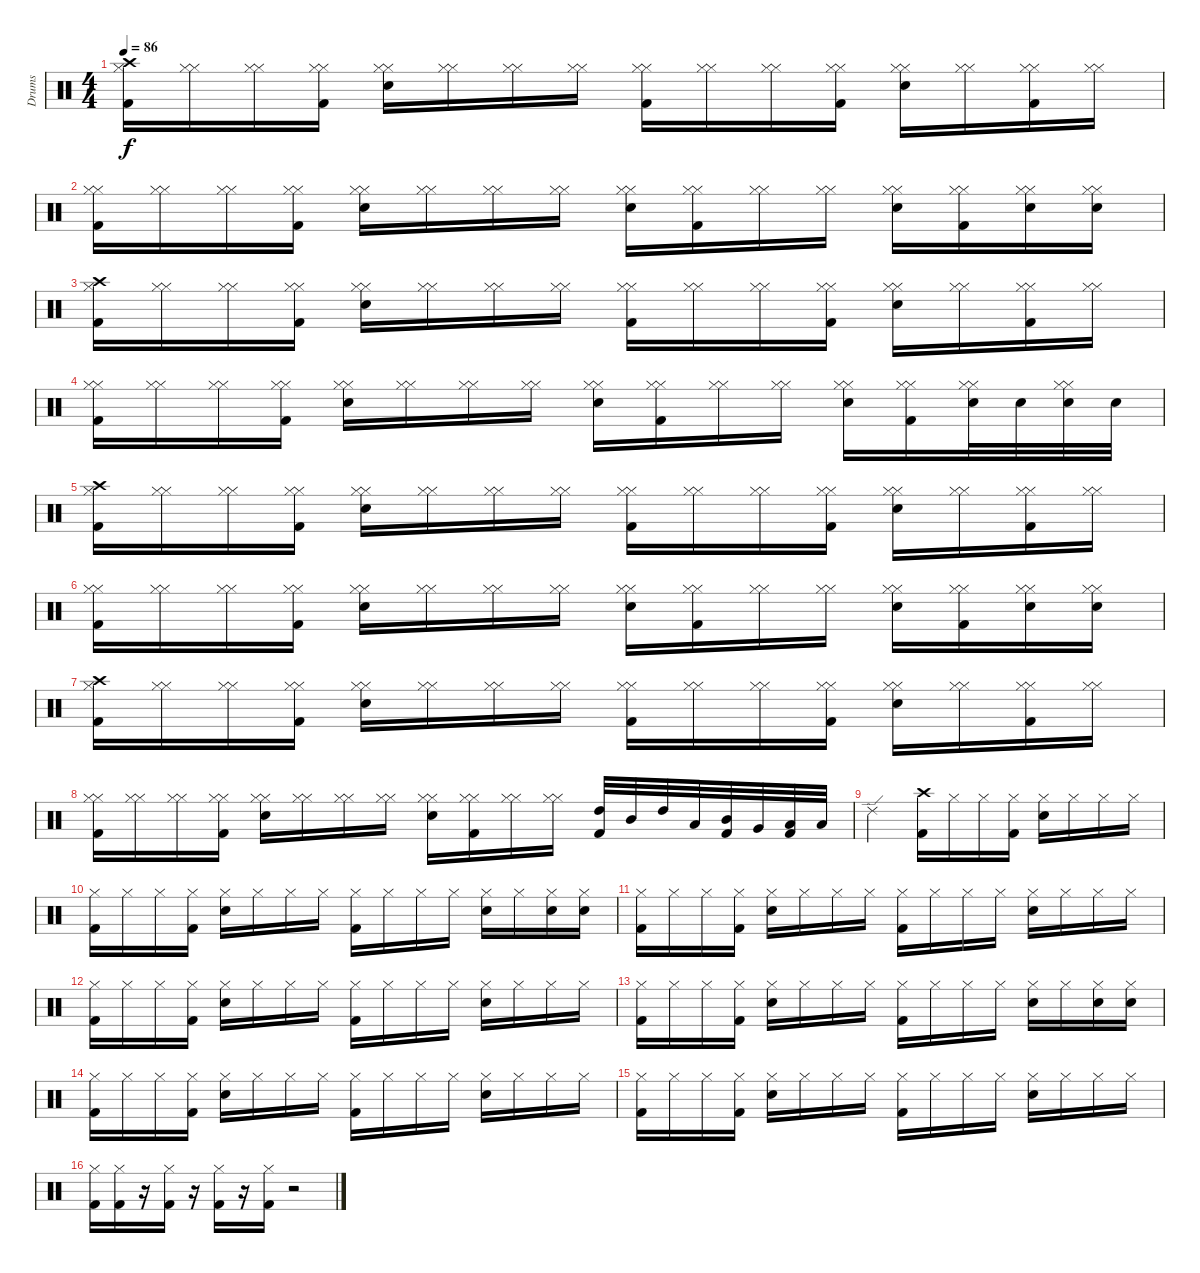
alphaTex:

\track ("Drums" "Drums") {instrument percussion}
\staff {score}
\articulation defaults
\ts (4 4)
\tempo 86
\clef neutral
\ks c
("Crash high (hit)" "Hi-Hat (closed)" "Kick (hit) 2").16{dy f} ("Hi-Hat (closed)" "Hi-Hat (closed)").16 ("Hi-Hat (closed)" "Hi-Hat (closed)").16 ("Hi-Hat (closed)" "Hi-Hat (closed)" "Kick (hit) 2").16 ("Hi-Hat (closed)" "Hi-Hat (closed)" "Electric Snare (hit)").16 ("Hi-Hat (closed)" "Hi-Hat (closed)").16 ("Hi-Hat (closed)" "Hi-Hat (closed)").16 ("Hi-Hat (closed)" "Hi-Hat (closed)").16 ("Hi-Hat (closed)" "Hi-Hat (closed)" "Kick (hit) 2").16 ("Hi-Hat (closed)" "Hi-Hat (closed)").16 ("Hi-Hat (closed)" "Hi-Hat (closed)").16 ("Hi-Hat (closed)" "Hi-Hat (closed)" "Kick (hit) 2").16 ("Hi-Hat (closed)" "Hi-Hat (closed)" "Electric Snare (hit)").16 ("Hi-Hat (closed)" "Hi-Hat (closed)").16 ("Hi-Hat (closed)" "Hi-Hat (closed)" "Kick (hit) 2").16 ("Hi-Hat (closed)" "Hi-Hat (closed)").16 |
("Hi-Hat (closed)" "Hi-Hat (closed)" "Kick (hit) 2").16 ("Hi-Hat (closed)" "Hi-Hat (closed)").16 ("Hi-Hat (closed)" "Hi-Hat (closed)").16 ("Hi-Hat (closed)" "Hi-Hat (closed)" "Kick (hit) 2").16 ("Hi-Hat (closed)" "Hi-Hat (closed)" "Electric Snare (hit)").16 ("Hi-Hat (closed)" "Hi-Hat (closed)").16 ("Hi-Hat (closed)" "Hi-Hat (closed)").16 ("Hi-Hat (closed)" "Hi-Hat (closed)").16 ("Hi-Hat (closed)" "Hi-Hat (closed)" "Electric Snare (hit)").16 ("Hi-Hat (closed)" "Hi-Hat (closed)" "Kick (hit) 2").16 ("Hi-Hat (closed)" "Hi-Hat (closed)").16 ("Hi-Hat (closed)" "Hi-Hat (closed)").16 ("Hi-Hat (closed)" "Hi-Hat (closed)" "Electric Snare (hit)").16 ("Hi-Hat (closed)" "Hi-Hat (closed)" "Kick (hit) 2").16 ("Hi-Hat (closed)" "Hi-Hat (closed)" "Electric Snare (hit)").16 ("Hi-Hat (closed)" "Hi-Hat (closed)" "Electric Snare (hit)").16 |
("Crash high (hit)" "Hi-Hat (closed)" "Kick (hit) 2").16 ("Hi-Hat (closed)" "Hi-Hat (closed)").16 ("Hi-Hat (closed)" "Hi-Hat (closed)").16 ("Hi-Hat (closed)" "Hi-Hat (closed)" "Kick (hit) 2").16 ("Hi-Hat (closed)" "Hi-Hat (closed)" "Electric Snare (hit)").16 ("Hi-Hat (closed)" "Hi-Hat (closed)").16 ("Hi-Hat (closed)" "Hi-Hat (closed)").16 ("Hi-Hat (closed)" "Hi-Hat (closed)").16 ("Hi-Hat (closed)" "Hi-Hat (closed)" "Kick (hit) 2").16 ("Hi-Hat (closed)" "Hi-Hat (closed)").16 ("Hi-Hat (closed)" "Hi-Hat (closed)").16 ("Hi-Hat (closed)" "Hi-Hat (closed)" "Kick (hit) 2").16 ("Hi-Hat (closed)" "Hi-Hat (closed)" "Electric Snare (hit)").16 ("Hi-Hat (closed)" "Hi-Hat (closed)").16 ("Hi-Hat (closed)" "Hi-Hat (closed)" "Kick (hit) 2").16 ("Hi-Hat (closed)" "Hi-Hat (closed)").16 |
("Hi-Hat (closed)" "Hi-Hat (closed)" "Kick (hit) 2").16 ("Hi-Hat (closed)" "Hi-Hat (closed)").16 ("Hi-Hat (closed)" "Hi-Hat (closed)").16 ("Hi-Hat (closed)" "Hi-Hat (closed)" "Kick (hit) 2").16 ("Hi-Hat (closed)" "Hi-Hat (closed)" "Electric Snare (hit)").16 ("Hi-Hat (closed)" "Hi-Hat (closed)").16 ("Hi-Hat (closed)" "Hi-Hat (closed)").16 ("Hi-Hat (closed)" "Hi-Hat (closed)").16 ("Hi-Hat (closed)" "Hi-Hat (closed)" "Electric Snare (hit)").16 ("Hi-Hat (closed)" "Hi-Hat (closed)" "Kick (hit) 2").16 ("Hi-Hat (closed)" "Hi-Hat (closed)").16 ("Hi-Hat (closed)" "Hi-Hat (closed)").16 ("Hi-Hat (closed)" "Hi-Hat (closed)" "Electric Snare (hit)").16 ("Hi-Hat (closed)" "Hi-Hat (closed)" "Kick (hit) 2").16 ("Hi-Hat (closed)" "Hi-Hat (closed)" "Electric Snare (hit)").32 "Electric Snare (hit)".32 ("Hi-Hat (closed)" "Hi-Hat (closed)" "Electric Snare (hit)").32 "Electric Snare (hit)".32 |
("Crash high (hit)" "Hi-Hat (closed)" "Kick (hit) 2").16 ("Hi-Hat (closed)" "Hi-Hat (closed)").16 ("Hi-Hat (closed)" "Hi-Hat (closed)").16 ("Hi-Hat (closed)" "Hi-Hat (closed)" "Kick (hit) 2").16 ("Hi-Hat (closed)" "Hi-Hat (closed)" "Electric Snare (hit)").16 ("Hi-Hat (closed)" "Hi-Hat (closed)").16 ("Hi-Hat (closed)" "Hi-Hat (closed)").16 ("Hi-Hat (closed)" "Hi-Hat (closed)").16 ("Hi-Hat (closed)" "Hi-Hat (closed)" "Kick (hit) 2").16 ("Hi-Hat (closed)" "Hi-Hat (closed)").16 ("Hi-Hat (closed)" "Hi-Hat (closed)").16 ("Hi-Hat (closed)" "Hi-Hat (closed)" "Kick (hit) 2").16 ("Hi-Hat (closed)" "Hi-Hat (closed)" "Electric Snare (hit)").16 ("Hi-Hat (closed)" "Hi-Hat (closed)").16 ("Hi-Hat (closed)" "Hi-Hat (closed)" "Kick (hit) 2").16 ("Hi-Hat (closed)" "Hi-Hat (closed)").16 |
("Hi-Hat (closed)" "Hi-Hat (closed)" "Kick (hit) 2").16 ("Hi-Hat (closed)" "Hi-Hat (closed)").16 ("Hi-Hat (closed)" "Hi-Hat (closed)").16 ("Hi-Hat (closed)" "Hi-Hat (closed)" "Kick (hit) 2").16 ("Hi-Hat (closed)" "Hi-Hat (closed)" "Electric Snare (hit)").16 ("Hi-Hat (closed)" "Hi-Hat (closed)").16 ("Hi-Hat (closed)" "Hi-Hat (closed)").16 ("Hi-Hat (closed)" "Hi-Hat (closed)").16 ("Hi-Hat (closed)" "Hi-Hat (closed)" "Electric Snare (hit)").16 ("Hi-Hat (closed)" "Hi-Hat (closed)" "Kick (hit) 2").16 ("Hi-Hat (closed)" "Hi-Hat (closed)").16 ("Hi-Hat (closed)" "Hi-Hat (closed)").16 ("Hi-Hat (closed)" "Hi-Hat (closed)" "Electric Snare (hit)").16 ("Hi-Hat (closed)" "Hi-Hat (closed)" "Kick (hit) 2").16 ("Hi-Hat (closed)" "Hi-Hat (closed)" "Electric Snare (hit)").16 ("Hi-Hat (closed)" "Hi-Hat (closed)" "Electric Snare (hit)").16 |
("Crash high (hit)" "Hi-Hat (closed)" "Kick (hit) 2").16 ("Hi-Hat (closed)" "Hi-Hat (closed)").16 ("Hi-Hat (closed)" "Hi-Hat (closed)").16 ("Hi-Hat (closed)" "Hi-Hat (closed)" "Kick (hit) 2").16 ("Hi-Hat (closed)" "Hi-Hat (closed)" "Electric Snare (hit)").16 ("Hi-Hat (closed)" "Hi-Hat (closed)").16 ("Hi-Hat (closed)" "Hi-Hat (closed)").16 ("Hi-Hat (closed)" "Hi-Hat (closed)").16 ("Hi-Hat (closed)" "Hi-Hat (closed)" "Kick (hit) 2").16 ("Hi-Hat (closed)" "Hi-Hat (closed)").16 ("Hi-Hat (closed)" "Hi-Hat (closed)").16 ("Hi-Hat (closed)" "Hi-Hat (closed)" "Kick (hit) 2").16 ("Hi-Hat (closed)" "Hi-Hat (closed)" "Electric Snare (hit)").16 ("Hi-Hat (closed)" "Hi-Hat (closed)").16 ("Hi-Hat (closed)" "Hi-Hat (closed)" "Kick (hit) 2").16 ("Hi-Hat (closed)" "Hi-Hat (closed)").16 |
("Hi-Hat (closed)" "Hi-Hat (closed)" "Kick (hit) 2").16 ("Hi-Hat (closed)" "Hi-Hat (closed)").16 ("Hi-Hat (closed)" "Hi-Hat (closed)").16 ("Hi-Hat (closed)" "Hi-Hat (closed)" "Kick (hit) 2").16 ("Hi-Hat (closed)" "Hi-Hat (closed)" "Electric Snare (hit)").16 ("Hi-Hat (closed)" "Hi-Hat (closed)").16 ("Hi-Hat (closed)" "Hi-Hat (closed)").16 ("Hi-Hat (closed)" "Hi-Hat (closed)").16 ("Hi-Hat (closed)" "Hi-Hat (closed)" "Electric Snare (hit)").16 ("Hi-Hat (closed)" "Hi-Hat (closed)" "Kick (hit) 2").16 ("Hi-Hat (closed)" "Hi-Hat (closed)").16 ("Hi-Hat (closed)" "Hi-Hat (closed)").16 ("High Tom (hit)" "Kick (hit) 2").32 "Mid Tom (hit)".32 "High Tom (hit)".32 "Low Tom (hit)".32 ("Mid Tom (hit)" "Kick (hit) 2").32 "Very Low Tom (hit)".32 ("Low Tom (hit)" "Kick (hit) 2").32 "Low Floor Tom (hit)".32 |
"Ride (edge) 2".2 ("Crash high (hit)" "Kick (hit) 2").16 "Hi-Hat (closed)".16 "Hi-Hat (closed)".16 ("Hi-Hat (closed)" "Kick (hit) 2").16 ("Hi-Hat (closed)" "Electric Snare (hit)").16 "Hi-Hat (closed)".16 "Hi-Hat (closed)".16 "Hi-Hat (closed)".16 |
("Hi-Hat (closed)" "Kick (hit) 2").16 "Hi-Hat (closed)".16 "Hi-Hat (closed)".16 ("Hi-Hat (closed)" "Kick (hit) 2").16 ("Hi-Hat (closed)" "Electric Snare (hit)").16 "Hi-Hat (closed)".16 "Hi-Hat (closed)".16 "Hi-Hat (closed)".16 ("Hi-Hat (closed)" "Kick (hit) 2").16 "Hi-Hat (closed)".16 "Hi-Hat (closed)".16 "Hi-Hat (closed)".16 ("Hi-Hat (closed)" "Electric Snare (hit)").16 "Hi-Hat (closed)".16 ("Hi-Hat (closed)" "Electric Snare (hit)").16 ("Hi-Hat (closed)" "Electric Snare (hit)").16 |
("Hi-Hat (closed)" "Kick (hit) 2").16 "Hi-Hat (closed)".16 "Hi-Hat (closed)".16 ("Hi-Hat (closed)" "Kick (hit) 2").16 ("Hi-Hat (closed)" "Electric Snare (hit)").16 "Hi-Hat (closed)".16 "Hi-Hat (closed)".16 "Hi-Hat (closed)".16 ("Hi-Hat (closed)" "Kick (hit) 2").16 "Hi-Hat (closed)".16 "Hi-Hat (closed)".16 "Hi-Hat (closed)".16 ("Hi-Hat (closed)" "Electric Snare (hit)").16 "Hi-Hat (closed)".16 "Hi-Hat (closed)".16 "Hi-Hat (closed)".16 |
("Hi-Hat (closed)" "Kick (hit) 2").16 "Hi-Hat (closed)".16 "Hi-Hat (closed)".16 ("Hi-Hat (closed)" "Kick (hit) 2").16 ("Hi-Hat (closed)" "Electric Snare (hit)").16 "Hi-Hat (closed)".16 "Hi-Hat (closed)".16 "Hi-Hat (closed)".16 ("Hi-Hat (closed)" "Kick (hit) 2").16 "Hi-Hat (closed)".16 "Hi-Hat (closed)".16 "Hi-Hat (closed)".16 ("Hi-Hat (closed)" "Electric Snare (hit)").16 "Hi-Hat (closed)".16 "Hi-Hat (closed)".16 "Hi-Hat (closed)".16 |
("Hi-Hat (closed)" "Kick (hit) 2").16 "Hi-Hat (closed)".16 "Hi-Hat (closed)".16 ("Hi-Hat (closed)" "Kick (hit) 2").16 ("Hi-Hat (closed)" "Electric Snare (hit)").16 "Hi-Hat (closed)".16 "Hi-Hat (closed)".16 "Hi-Hat (closed)".16 ("Hi-Hat (closed)" "Kick (hit) 2").16 "Hi-Hat (closed)".16 "Hi-Hat (closed)".16 "Hi-Hat (closed)".16 ("Hi-Hat (closed)" "Electric Snare (hit)").16 "Hi-Hat (closed)".16 ("Hi-Hat (closed)" "Electric Snare (hit)").16 ("Hi-Hat (closed)" "Electric Snare (hit)").16 |
("Hi-Hat (closed)" "Kick (hit) 2").16 "Hi-Hat (closed)".16 "Hi-Hat (closed)".16 ("Hi-Hat (closed)" "Kick (hit) 2").16 ("Hi-Hat (closed)" "Electric Snare (hit)").16 "Hi-Hat (closed)".16 "Hi-Hat (closed)".16 "Hi-Hat (closed)".16 ("Hi-Hat (closed)" "Kick (hit) 2").16 "Hi-Hat (closed)".16 "Hi-Hat (closed)".16 "Hi-Hat (closed)".16 ("Hi-Hat (closed)" "Electric Snare (hit)").16 "Hi-Hat (closed)".16 "Hi-Hat (closed)".16 "Hi-Hat (closed)".16 |
("Hi-Hat (closed)" "Kick (hit) 2").16 "Hi-Hat (closed)".16 "Hi-Hat (closed)".16 ("Hi-Hat (closed)" "Kick (hit) 2").16 ("Hi-Hat (closed)" "Electric Snare (hit)").16 "Hi-Hat (closed)".16 "Hi-Hat (closed)".16 "Hi-Hat (closed)".16 ("Hi-Hat (closed)" "Kick (hit) 2").16 "Hi-Hat (closed)".16 "Hi-Hat (closed)".16 "Hi-Hat (closed)".16 ("Hi-Hat (closed)" "Electric Snare (hit)").16 "Hi-Hat (closed)".16 "Hi-Hat (closed)".16 "Hi-Hat (closed)".16 |
("Hi-Hat (closed)" "Kick (hit) 2").16 ("Hi-Hat (closed)" "Kick (hit) 2").16 r.16 ("Hi-Hat (closed)" "Kick (hit) 2").16 r.16 ("Hi-Hat (closed)" "Kick (hit) 2").16 r.16 ("Hi-Hat (closed)" "Kick (hit) 2").16 r.2
